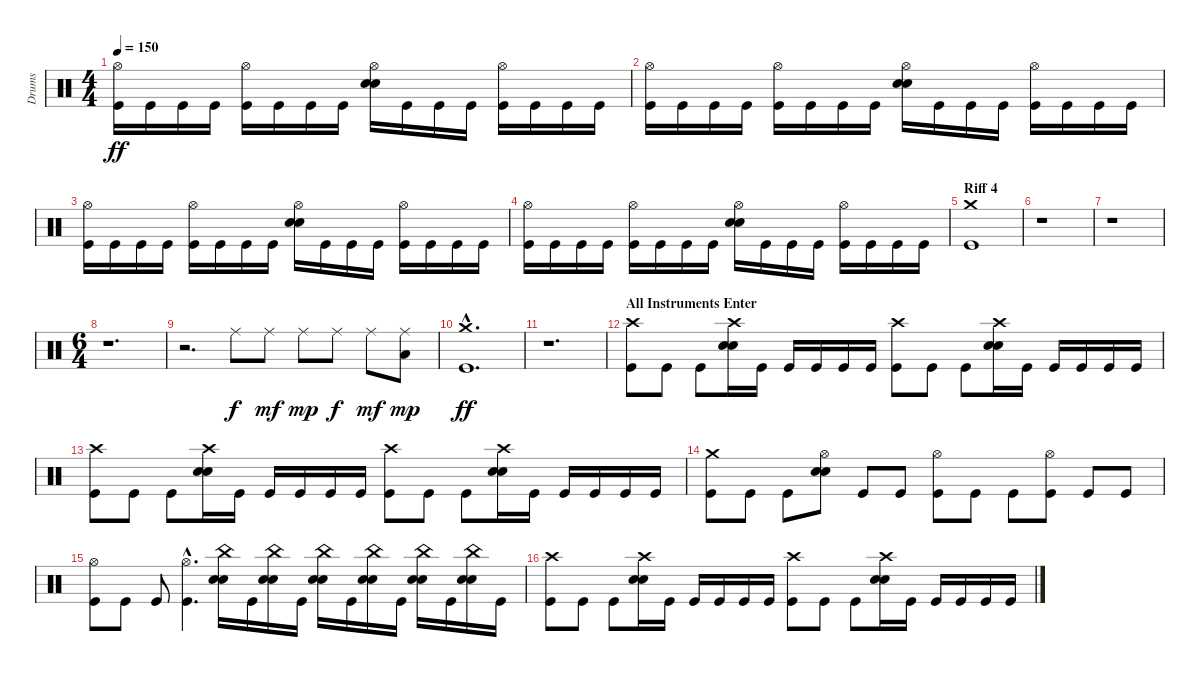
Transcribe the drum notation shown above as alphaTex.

\track ("Drums" "Drums") {instrument percussion}
\staff {score}
\articulation defaults
\ts (4 4)
\tempo 150
\clef neutral
\ks c
("Kick (hit)" "Hi-Hat (open)").16{dy ff} "Kick (hit)".16 "Kick (hit)".16 "Kick (hit)".16 ("Kick (hit)" "Hi-Hat (open)").16 "Kick (hit)".16 "Kick (hit)".16 "Kick (hit)".16 ("Electric Snare (hit)" "Electric Snare (hit)" "Hi-Hat (open)").16 "Kick (hit)".16 "Kick (hit)".16 "Kick (hit)".16 ("Kick (hit)" "Hi-Hat (open)").16 "Kick (hit)".16 "Kick (hit)".16 "Kick (hit)".16 |
("Kick (hit)" "Hi-Hat (open)").16 "Kick (hit)".16 "Kick (hit)".16 "Kick (hit)".16 ("Kick (hit)" "Hi-Hat (open)").16 "Kick (hit)".16 "Kick (hit)".16 "Kick (hit)".16 ("Electric Snare (hit)" "Electric Snare (hit)" "Hi-Hat (open)").16 "Kick (hit)".16 "Kick (hit)".16 "Kick (hit)".16 ("Kick (hit)" "Hi-Hat (open)").16 "Kick (hit)".16 "Kick (hit)".16 "Kick (hit)".16 |
("Kick (hit)" "Hi-Hat (open)").16 "Kick (hit)".16 "Kick (hit)".16 "Kick (hit)".16 ("Kick (hit)" "Hi-Hat (open)").16 "Kick (hit)".16 "Kick (hit)".16 "Kick (hit)".16 ("Electric Snare (hit)" "Electric Snare (hit)" "Hi-Hat (open)").16 "Kick (hit)".16 "Kick (hit)".16 "Kick (hit)".16 ("Kick (hit)" "Hi-Hat (open)").16 "Kick (hit)".16 "Kick (hit)".16 "Kick (hit)".16 |
("Kick (hit)" "Hi-Hat (open)").16 "Kick (hit)".16 "Kick (hit)".16 "Kick (hit)".16 ("Kick (hit)" "Hi-Hat (open)").16 "Kick (hit)".16 "Kick (hit)".16 "Kick (hit)".16 ("Electric Snare (hit)" "Electric Snare (hit)" "Hi-Hat (open)").16 "Kick (hit)".16 "Kick (hit)".16 "Kick (hit)".16 ("Kick (hit)" "Hi-Hat (open)").16 "Kick (hit)".16 "Kick (hit)".16 "Kick (hit)".16 |
\section ("" "Riff 4")
("Kick (hit)" "Crash medium (hit)").1 |
r.1 |
r.1 |
\ts (6 4)
r.1{d} |
r.2{d} "Ride (middle)".8{dy f} "Ride (middle)".8{dy mf} "Ride (middle)".8{dy mp} "Ride (middle)".8{dy f} "Ride (middle)".8{dy mf} ("Low Floor Tom (hit)" "Ride (middle)").8{dy mp} |
("Kick (hit)"{hac} "Crash medium (hit)"{hac}).1{d dy ff} |
r.1{d} |
\section ("" "All Instruments Enter")
("Kick (hit)" "Crash high (hit)").8 "Kick (hit)".8 "Kick (hit)".8 ("Electric Snare (hit)" "Electric Snare (hit)" "Crash high (hit)").16 "Kick (hit)".16 "Kick (hit)".16 "Kick (hit)".16 "Kick (hit)".16 "Kick (hit)".16 ("Kick (hit)" "Crash high (hit)").8 "Kick (hit)".8 "Kick (hit)".8 ("Electric Snare (hit)" "Electric Snare (hit)" "Crash high (hit)").16 "Kick (hit)".16 "Kick (hit)".16 "Kick (hit)".16 "Kick (hit)".16 "Kick (hit)".16 |
("Kick (hit)" "Crash high (hit)").8 "Kick (hit)".8 "Kick (hit)".8 ("Electric Snare (hit)" "Electric Snare (hit)" "Crash high (hit)").16 "Kick (hit)".16 "Kick (hit)".16 "Kick (hit)".16 "Kick (hit)".16 "Kick (hit)".16 ("Kick (hit)" "Crash high (hit)").8 "Kick (hit)".8 "Kick (hit)".8 ("Electric Snare (hit)" "Electric Snare (hit)" "Crash high (hit)").16 "Kick (hit)".16 "Kick (hit)".16 "Kick (hit)".16 "Kick (hit)".16 "Kick (hit)".16 |
("Kick (hit)" "Crash medium (hit)").8 "Kick (hit)".8 "Kick (hit)".8 ("Electric Snare (hit)" "Electric Snare (hit)" "Hi-Hat (open)").8 "Kick (hit)".8 "Kick (hit)".8 ("Kick (hit)" "Hi-Hat (open)").8 "Kick (hit)".8 "Kick (hit)".8 ("Kick (hit)" "Hi-Hat (open)").8 "Kick (hit)".8 "Kick (hit)".8 |
("Kick (hit)" "Hi-Hat (open)").8 "Kick (hit)".8 "Kick (hit)".8 ("Kick (hit)"{hac} "Hi-Hat (open)"{hac}).4{d} ("Electric Snare (hit)" "Electric Snare (hit)" "China (hit)").16 "Kick (hit)".16 ("Electric Snare (hit)" "Electric Snare (hit)" "China (hit)").16 "Kick (hit)".16 ("Electric Snare (hit)" "Electric Snare (hit)" "China (hit)").16 "Kick (hit)".16 ("Electric Snare (hit)" "Electric Snare (hit)" "China (hit)").16 "Kick (hit)".16 ("Electric Snare (hit)" "Electric Snare (hit)" "China (hit)").16 "Kick (hit)".16 ("Electric Snare (hit)" "Electric Snare (hit)" "China (hit)").16 "Kick (hit)".16 |
("Kick (hit)" "Crash high (hit)").8 "Kick (hit)".8 "Kick (hit)".8 ("Electric Snare (hit)" "Electric Snare (hit)" "Crash high (hit)").16 "Kick (hit)".16 "Kick (hit)".16 "Kick (hit)".16 "Kick (hit)".16 "Kick (hit)".16 ("Kick (hit)" "Crash high (hit)").8 "Kick (hit)".8 "Kick (hit)".8 ("Electric Snare (hit)" "Electric Snare (hit)" "Crash high (hit)").16 "Kick (hit)".16 "Kick (hit)".16 "Kick (hit)".16 "Kick (hit)".16 "Kick (hit)".16
